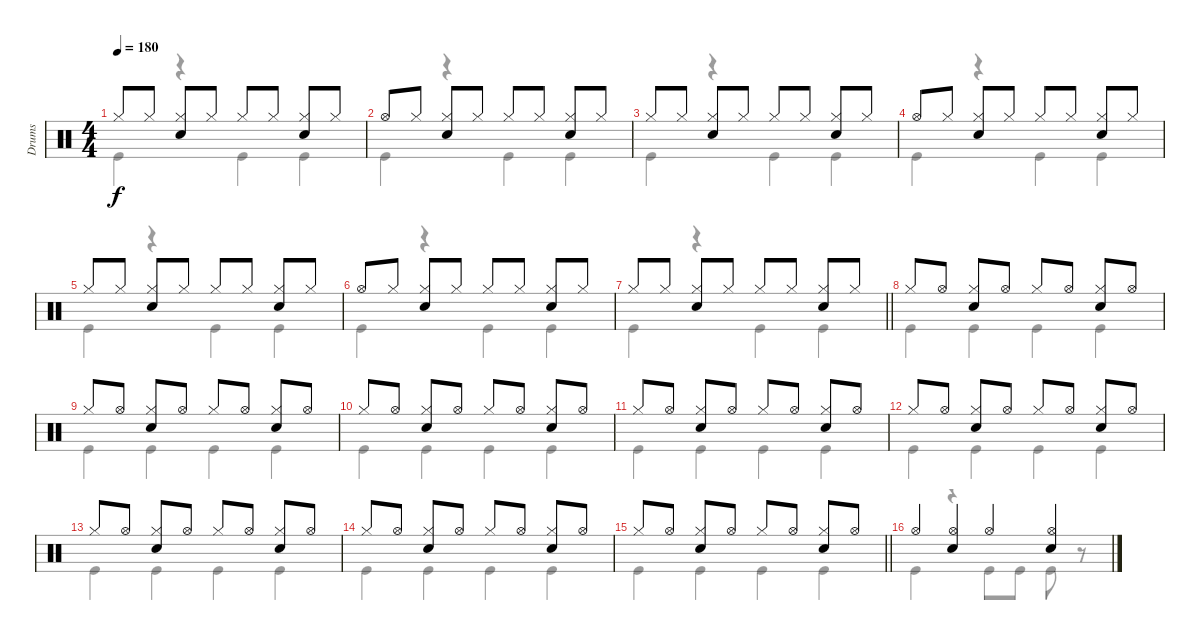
\track ("Drums" "Drums") {instrument percussion}
\staff {score}
\articulation defaults
\voice
\ts (4 4)
\tempo 180
\clef neutral
\ks c "Hi-Hat (closed)".8{dy f} "Hi-Hat (closed)".8
("Hi-Hat (closed)" "Snare (hit) 2").8 "Hi-Hat (closed)".8 "Hi-Hat (closed)".8 "Hi-Hat (closed)".8 ("Hi-Hat (closed)" "Snare (hit) 2").8 "Hi-Hat (closed)".8 |
"Hi-Hat (open)".8 "Hi-Hat (closed)".8 ("Hi-Hat (closed)" "Snare (hit) 2").8 "Hi-Hat (closed)".8 "Hi-Hat (closed)".8 "Hi-Hat (closed)".8 ("Hi-Hat (closed)" "Snare (hit) 2").8 "Hi-Hat (closed)".8 |
"Hi-Hat (closed)".8 "Hi-Hat (closed)".8 ("Hi-Hat (closed)" "Snare (hit) 2").8 "Hi-Hat (closed)".8 "Hi-Hat (closed)".8 "Hi-Hat (closed)".8 ("Hi-Hat (closed)" "Snare (hit) 2").8 "Hi-Hat (closed)".8 |
"Hi-Hat (open)".8 "Hi-Hat (closed)".8 ("Hi-Hat (closed)" "Snare (hit) 2").8 "Hi-Hat (closed)".8 "Hi-Hat (closed)".8 "Hi-Hat (closed)".8 ("Hi-Hat (closed)" "Snare (hit) 2").8 "Hi-Hat (closed)".8 |
"Hi-Hat (closed)".8 "Hi-Hat (closed)".8 ("Hi-Hat (closed)" "Snare (hit) 2").8 "Hi-Hat (closed)".8 "Hi-Hat (closed)".8 "Hi-Hat (closed)".8 ("Hi-Hat (closed)" "Snare (hit) 2").8 "Hi-Hat (closed)".8 |
"Hi-Hat (open)".8 "Hi-Hat (closed)".8 ("Hi-Hat (closed)" "Snare (hit) 2").8 "Hi-Hat (closed)".8 "Hi-Hat (closed)".8 "Hi-Hat (closed)".8 ("Hi-Hat (closed)" "Snare (hit) 2").8 "Hi-Hat (closed)".8 |
\barLineRight lightlight "Hi-Hat (closed)".8 "Hi-Hat (closed)".8
("Hi-Hat (closed)" "Snare (hit) 2").8 "Hi-Hat (closed)".8 "Hi-Hat (closed)".8 "Hi-Hat (closed)".8 ("Hi-Hat (closed)" "Snare (hit) 2").8 "Hi-Hat (closed)".8 |
"Hi-Hat (closed)".8 "Hi-Hat (open)".8 ("Hi-Hat (closed)" "Snare (hit) 2").8 "Hi-Hat (open)".8 "Hi-Hat (closed)".8 "Hi-Hat (open)".8 ("Hi-Hat (closed)" "Snare (hit) 2").8 "Hi-Hat (open)".8 |
"Hi-Hat (closed)".8 "Hi-Hat (open)".8 ("Hi-Hat (closed)" "Snare (hit) 2").8 "Hi-Hat (open)".8 "Hi-Hat (closed)".8 "Hi-Hat (open)".8 ("Hi-Hat (closed)" "Snare (hit) 2").8 "Hi-Hat (open)".8 |
"Hi-Hat (closed)".8 "Hi-Hat (open)".8 ("Hi-Hat (closed)" "Snare (hit) 2").8 "Hi-Hat (open)".8 "Hi-Hat (closed)".8 "Hi-Hat (open)".8 ("Hi-Hat (closed)" "Snare (hit) 2").8 "Hi-Hat (open)".8 |
"Hi-Hat (closed)".8 "Hi-Hat (open)".8 ("Hi-Hat (closed)" "Snare (hit) 2").8 "Hi-Hat (open)".8 "Hi-Hat (closed)".8 "Hi-Hat (open)".8 ("Hi-Hat (closed)" "Snare (hit) 2").8 "Hi-Hat (open)".8 |
"Hi-Hat (closed)".8 "Hi-Hat (open)".8 ("Hi-Hat (closed)" "Snare (hit) 2").8 "Hi-Hat (open)".8 "Hi-Hat (closed)".8 "Hi-Hat (open)".8 ("Hi-Hat (closed)" "Snare (hit) 2").8 "Hi-Hat (open)".8 |
"Hi-Hat (closed)".8 "Hi-Hat (open)".8 ("Hi-Hat (closed)" "Snare (hit) 2").8 "Hi-Hat (open)".8 "Hi-Hat (closed)".8 "Hi-Hat (open)".8 ("Hi-Hat (closed)" "Snare (hit) 2").8 "Hi-Hat (open)".8 |
"Hi-Hat (closed)".8 "Hi-Hat (open)".8 ("Hi-Hat (closed)" "Snare (hit) 2").8 "Hi-Hat (open)".8 "Hi-Hat (closed)".8 "Hi-Hat (open)".8 ("Hi-Hat (closed)" "Snare (hit) 2").8 "Hi-Hat (open)".8 |
\barLineRight lightlight "Hi-Hat (closed)".8 "Hi-Hat (open)".8
("Hi-Hat (closed)" "Snare (hit) 2").8 "Hi-Hat (open)".8 "Hi-Hat (closed)".8 "Hi-Hat (open)".8 ("Hi-Hat (closed)" "Snare (hit) 2").8 "Hi-Hat (open)".8 |
"Hi-Hat (open)".4 ("Hi-Hat (open)" "Snare (hit) 2").4 "Hi-Hat (open)".4 ("Hi-Hat (open)" "Snare (hit) 2").4
\voice
\clef neutral
\ottava regular
\simile none
\ks c "Kick (hit)".4{dy f}
r.4 "Kick (hit)".4 "Kick (hit)".4 |
"Kick (hit)".4 r.4 "Kick (hit)".4 "Kick (hit)".4 |
"Kick (hit)".4 r.4 "Kick (hit)".4 "Kick (hit)".4 |
"Kick (hit)".4 r.4 "Kick (hit)".4 "Kick (hit)".4 |
"Kick (hit)".4 r.4 "Kick (hit)".4 "Kick (hit)".4 |
"Kick (hit)".4 r.4 "Kick (hit)".4 "Kick (hit)".4 |
\barLineRight lightlight "Kick (hit)".4
r.4 "Kick (hit)".4 "Kick (hit)".4 |
"Kick (hit)".4 "Kick (hit)".4 "Kick (hit)".4 "Kick (hit)".4 |
"Kick (hit)".4 "Kick (hit)".4 "Kick (hit)".4 "Kick (hit)".4 |
"Kick (hit)".4 "Kick (hit)".4 "Kick (hit)".4 "Kick (hit)".4 |
"Kick (hit)".4 "Kick (hit)".4 "Kick (hit)".4 "Kick (hit)".4 |
"Kick (hit)".4 "Kick (hit)".4 "Kick (hit)".4 "Kick (hit)".4 |
"Kick (hit)".4 "Kick (hit)".4 "Kick (hit)".4 "Kick (hit)".4 |
"Kick (hit)".4 "Kick (hit)".4 "Kick (hit)".4 "Kick (hit)".4 |
\barLineRight lightlight "Kick (hit)".4 "Kick (hit)".4 "Kick (hit)".4 "Kick (hit)".4
|
"Kick (hit)".4 r.4 "Kick (hit)".8 "Kick (hit)".8 "Kick (hit)".8 r.8
